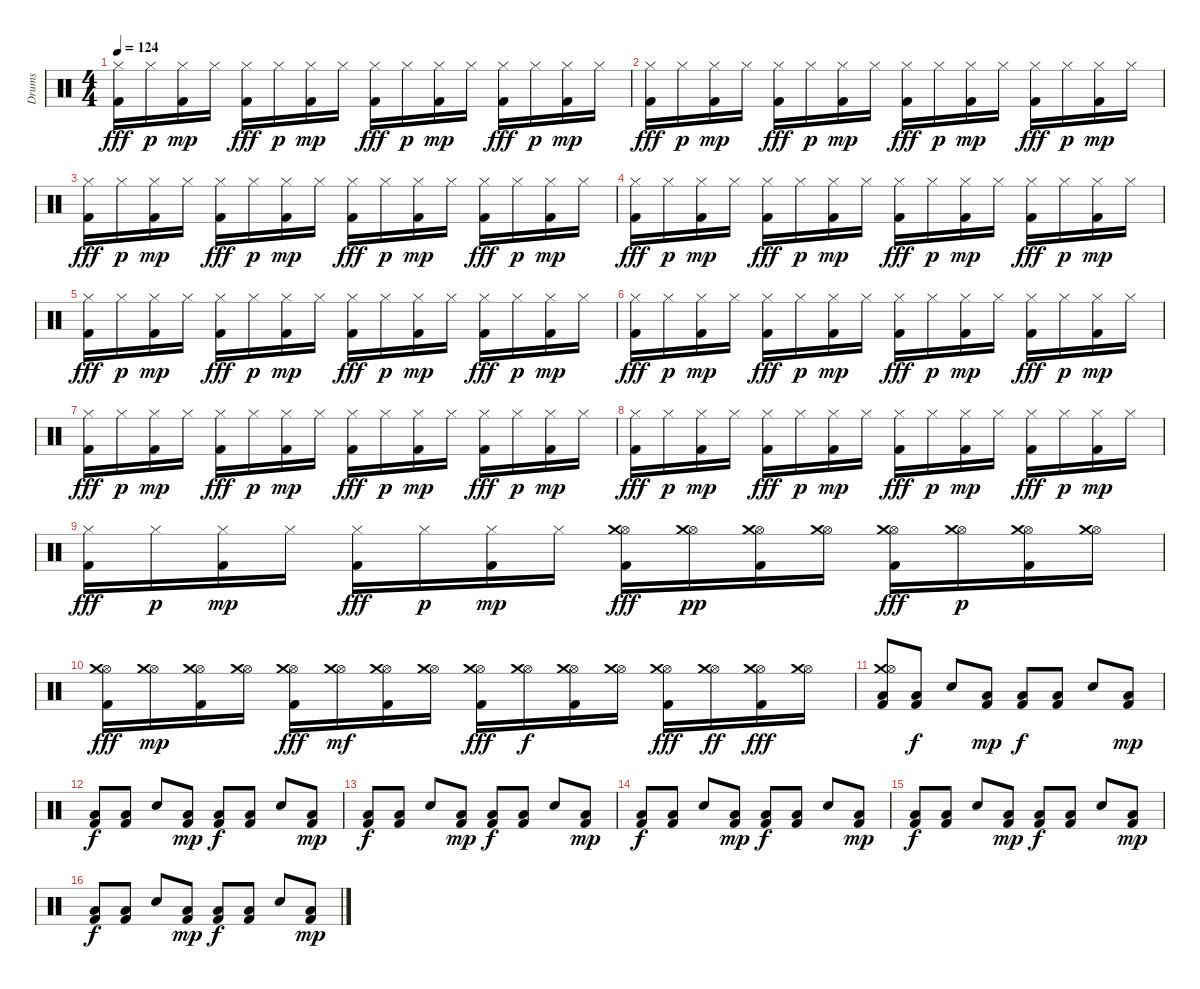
\track ("Drums" "Drums") {instrument percussion}
\staff {score}
\articulation defaults
\ts (4 4)
\tempo 124
\clef neutral
\ks c
("Hi-Hat (closed)" "Kick (hit) 2").16{dy fff volume 11} "Hi-Hat (closed)".16{dy p} ("Hi-Hat (closed)" "Kick (hit) 2").16{dy mp} "Hi-Hat (closed)".16 ("Hi-Hat (closed)" "Kick (hit) 2").16{dy fff} "Hi-Hat (closed)".16{dy p} ("Hi-Hat (closed)" "Kick (hit) 2").16{dy mp} "Hi-Hat (closed)".16 ("Hi-Hat (closed)" "Kick (hit) 2").16{dy fff} "Hi-Hat (closed)".16{dy p} ("Hi-Hat (closed)" "Kick (hit) 2").16{dy mp} "Hi-Hat (closed)".16 ("Hi-Hat (closed)" "Kick (hit) 2").16{dy fff} "Hi-Hat (closed)".16{dy p} ("Hi-Hat (closed)" "Kick (hit) 2").16{dy mp} "Hi-Hat (closed)".16 |
("Hi-Hat (closed)" "Kick (hit) 2").16{dy fff volume 11} "Hi-Hat (closed)".16{dy p} ("Hi-Hat (closed)" "Kick (hit) 2").16{dy mp} "Hi-Hat (closed)".16 ("Hi-Hat (closed)" "Kick (hit) 2").16{dy fff} "Hi-Hat (closed)".16{dy p} ("Hi-Hat (closed)" "Kick (hit) 2").16{dy mp} "Hi-Hat (closed)".16 ("Hi-Hat (closed)" "Kick (hit) 2").16{dy fff} "Hi-Hat (closed)".16{dy p} ("Hi-Hat (closed)" "Kick (hit) 2").16{dy mp} "Hi-Hat (closed)".16 ("Hi-Hat (closed)" "Kick (hit) 2").16{dy fff} "Hi-Hat (closed)".16{dy p} ("Hi-Hat (closed)" "Kick (hit) 2").16{dy mp} "Hi-Hat (closed)".16 |
("Hi-Hat (closed)" "Kick (hit) 2").16{dy fff volume 11} "Hi-Hat (closed)".16{dy p} ("Hi-Hat (closed)" "Kick (hit) 2").16{dy mp} "Hi-Hat (closed)".16 ("Hi-Hat (closed)" "Kick (hit) 2").16{dy fff} "Hi-Hat (closed)".16{dy p} ("Hi-Hat (closed)" "Kick (hit) 2").16{dy mp} "Hi-Hat (closed)".16 ("Hi-Hat (closed)" "Kick (hit) 2").16{dy fff} "Hi-Hat (closed)".16{dy p} ("Hi-Hat (closed)" "Kick (hit) 2").16{dy mp} "Hi-Hat (closed)".16 ("Hi-Hat (closed)" "Kick (hit) 2").16{dy fff} "Hi-Hat (closed)".16{dy p} ("Hi-Hat (closed)" "Kick (hit) 2").16{dy mp} "Hi-Hat (closed)".16 |
("Hi-Hat (closed)" "Kick (hit) 2").16{dy fff volume 11} "Hi-Hat (closed)".16{dy p} ("Hi-Hat (closed)" "Kick (hit) 2").16{dy mp} "Hi-Hat (closed)".16 ("Hi-Hat (closed)" "Kick (hit) 2").16{dy fff} "Hi-Hat (closed)".16{dy p} ("Hi-Hat (closed)" "Kick (hit) 2").16{dy mp} "Hi-Hat (closed)".16 ("Hi-Hat (closed)" "Kick (hit) 2").16{dy fff} "Hi-Hat (closed)".16{dy p} ("Hi-Hat (closed)" "Kick (hit) 2").16{dy mp} "Hi-Hat (closed)".16 ("Hi-Hat (closed)" "Kick (hit) 2").16{dy fff} "Hi-Hat (closed)".16{dy p} ("Hi-Hat (closed)" "Kick (hit) 2").16{dy mp} "Hi-Hat (closed)".16 |
("Hi-Hat (closed)" "Kick (hit) 2").16{dy fff volume 11} "Hi-Hat (closed)".16{dy p} ("Hi-Hat (closed)" "Kick (hit) 2").16{dy mp} "Hi-Hat (closed)".16 ("Hi-Hat (closed)" "Kick (hit) 2").16{dy fff} "Hi-Hat (closed)".16{dy p} ("Hi-Hat (closed)" "Kick (hit) 2").16{dy mp} "Hi-Hat (closed)".16 ("Hi-Hat (closed)" "Kick (hit) 2").16{dy fff} "Hi-Hat (closed)".16{dy p} ("Hi-Hat (closed)" "Kick (hit) 2").16{dy mp} "Hi-Hat (closed)".16 ("Hi-Hat (closed)" "Kick (hit) 2").16{dy fff} "Hi-Hat (closed)".16{dy p} ("Hi-Hat (closed)" "Kick (hit) 2").16{dy mp} "Hi-Hat (closed)".16 |
("Hi-Hat (closed)" "Kick (hit) 2").16{dy fff volume 11} "Hi-Hat (closed)".16{dy p} ("Hi-Hat (closed)" "Kick (hit) 2").16{dy mp} "Hi-Hat (closed)".16 ("Hi-Hat (closed)" "Kick (hit) 2").16{dy fff} "Hi-Hat (closed)".16{dy p} ("Hi-Hat (closed)" "Kick (hit) 2").16{dy mp} "Hi-Hat (closed)".16 ("Hi-Hat (closed)" "Kick (hit) 2").16{dy fff} "Hi-Hat (closed)".16{dy p} ("Hi-Hat (closed)" "Kick (hit) 2").16{dy mp} "Hi-Hat (closed)".16 ("Hi-Hat (closed)" "Kick (hit) 2").16{dy fff} "Hi-Hat (closed)".16{dy p} ("Hi-Hat (closed)" "Kick (hit) 2").16{dy mp} "Hi-Hat (closed)".16 |
("Hi-Hat (closed)" "Kick (hit) 2").16{dy fff volume 11} "Hi-Hat (closed)".16{dy p} ("Hi-Hat (closed)" "Kick (hit) 2").16{dy mp} "Hi-Hat (closed)".16 ("Hi-Hat (closed)" "Kick (hit) 2").16{dy fff} "Hi-Hat (closed)".16{dy p} ("Hi-Hat (closed)" "Kick (hit) 2").16{dy mp} "Hi-Hat (closed)".16 ("Hi-Hat (closed)" "Kick (hit) 2").16{dy fff} "Hi-Hat (closed)".16{dy p} ("Hi-Hat (closed)" "Kick (hit) 2").16{dy mp} "Hi-Hat (closed)".16 ("Hi-Hat (closed)" "Kick (hit) 2").16{dy fff} "Hi-Hat (closed)".16{dy p} ("Hi-Hat (closed)" "Kick (hit) 2").16{dy mp} "Hi-Hat (closed)".16 |
("Hi-Hat (closed)" "Kick (hit) 2").16{dy fff volume 11} "Hi-Hat (closed)".16{dy p} ("Hi-Hat (closed)" "Kick (hit) 2").16{dy mp} "Hi-Hat (closed)".16 ("Hi-Hat (closed)" "Kick (hit) 2").16{dy fff} "Hi-Hat (closed)".16{dy p} ("Hi-Hat (closed)" "Kick (hit) 2").16{dy mp} "Hi-Hat (closed)".16 ("Hi-Hat (closed)" "Kick (hit) 2").16{dy fff} "Hi-Hat (closed)".16{dy p} ("Hi-Hat (closed)" "Kick (hit) 2").16{dy mp} "Hi-Hat (closed)".16 ("Hi-Hat (closed)" "Kick (hit) 2").16{dy fff} "Hi-Hat (closed)".16{dy p} ("Hi-Hat (closed)" "Kick (hit) 2").16{dy mp} "Hi-Hat (closed)".16 |
("Hi-Hat (closed)" "Kick (hit) 2").16{dy fff} "Hi-Hat (closed)".16{dy p} ("Hi-Hat (closed)" "Kick (hit) 2").16{dy mp} "Hi-Hat (closed)".16 ("Hi-Hat (closed)" "Kick (hit) 2").16{dy fff} "Hi-Hat (closed)".16{dy p} ("Hi-Hat (closed)" "Kick (hit) 2").16{dy mp} "Hi-Hat (closed)".16 ("Hi-Hat (open)" "Crash medium (hit)" "Kick (hit) 2").16{dy fff} ("Hi-Hat (open)" "Crash medium (hit)").16{dy pp} ("Hi-Hat (open)" "Crash medium (hit)" "Kick (hit) 2").16 ("Hi-Hat (open)" "Crash medium (hit)").16 ("Hi-Hat (open)" "Crash medium (hit)" "Kick (hit) 2").16{dy fff} ("Hi-Hat (open)" "Crash medium (hit)").16{dy p} ("Hi-Hat (open)" "Crash medium (hit)" "Kick (hit) 2").16 ("Hi-Hat (open)" "Crash medium (hit)").16 |
("Hi-Hat (open)" "Crash medium (hit)" "Kick (hit) 2").16{dy fff} ("Hi-Hat (open)" "Crash medium (hit)").16{dy mp} ("Hi-Hat (open)" "Crash medium (hit)" "Kick (hit) 2").16 ("Hi-Hat (open)" "Crash medium (hit)").16 ("Hi-Hat (open)" "Crash medium (hit)" "Kick (hit) 2").16{dy fff} ("Hi-Hat (open)" "Crash medium (hit)").16{dy mf} ("Hi-Hat (open)" "Crash medium (hit)" "Kick (hit) 2").16 ("Hi-Hat (open)" "Crash medium (hit)").16 ("Hi-Hat (open)" "Crash medium (hit)" "Kick (hit) 2").16{dy fff} ("Hi-Hat (open)" "Crash medium (hit)").16{dy f} ("Hi-Hat (open)" "Crash medium (hit)" "Kick (hit) 2").16 ("Hi-Hat (open)" "Crash medium (hit)").16 ("Hi-Hat (open)" "Crash medium (hit)" "Kick (hit) 2").16{dy fff} ("Hi-Hat (open)" "Crash medium (hit)").16{dy ff} ("Hi-Hat (open)" "Crash medium (hit)" "Kick (hit) 2").16{dy fff} ("Hi-Hat (open)" "Crash medium (hit)").16 |
("Crash medium (hit)" "Hi-Hat (open)" "Low Tom (hit)" "Kick (hit) 2").8 ("Low Tom (hit)" "Kick (hit) 2").8{dy f} "Snare (hit) 2".8 ("Low Tom (hit)" "Kick (hit) 2").8{dy mp} ("Low Tom (hit)" "Kick (hit) 2").8{dy f} ("Low Tom (hit)" "Kick (hit) 2").8 "Snare (hit) 2".8 ("Low Tom (hit)" "Kick (hit) 2").8{dy mp} |
("Low Tom (hit)" "Kick (hit) 2").8{dy f} ("Low Tom (hit)" "Kick (hit) 2").8 "Snare (hit) 2".8 ("Low Tom (hit)" "Kick (hit) 2").8{dy mp} ("Low Tom (hit)" "Kick (hit) 2").8{dy f} ("Low Tom (hit)" "Kick (hit) 2").8 "Snare (hit) 2".8 ("Low Tom (hit)" "Kick (hit) 2").8{dy mp} |
("Low Tom (hit)" "Kick (hit) 2").8{dy f} ("Low Tom (hit)" "Kick (hit) 2").8 "Snare (hit) 2".8 ("Low Tom (hit)" "Kick (hit) 2").8{dy mp} ("Low Tom (hit)" "Kick (hit) 2").8{dy f} ("Low Tom (hit)" "Kick (hit) 2").8 "Snare (hit) 2".8 ("Low Tom (hit)" "Kick (hit) 2").8{dy mp} |
("Low Tom (hit)" "Kick (hit) 2").8{dy f} ("Low Tom (hit)" "Kick (hit) 2").8 "Snare (hit) 2".8 ("Low Tom (hit)" "Kick (hit) 2").8{dy mp} ("Low Tom (hit)" "Kick (hit) 2").8{dy f} ("Low Tom (hit)" "Kick (hit) 2").8 "Snare (hit) 2".8 ("Low Tom (hit)" "Kick (hit) 2").8{dy mp} |
("Low Tom (hit)" "Kick (hit) 2").8{dy f} ("Low Tom (hit)" "Kick (hit) 2").8 "Snare (hit) 2".8 ("Low Tom (hit)" "Kick (hit) 2").8{dy mp} ("Low Tom (hit)" "Kick (hit) 2").8{dy f} ("Low Tom (hit)" "Kick (hit) 2").8 "Snare (hit) 2".8 ("Low Tom (hit)" "Kick (hit) 2").8{dy mp} |
("Low Tom (hit)" "Kick (hit) 2").8{dy f} ("Low Tom (hit)" "Kick (hit) 2").8 "Snare (hit) 2".8 ("Low Tom (hit)" "Kick (hit) 2").8{dy mp} ("Low Tom (hit)" "Kick (hit) 2").8{dy f} ("Low Tom (hit)" "Kick (hit) 2").8 "Snare (hit) 2".8 ("Low Tom (hit)" "Kick (hit) 2").8{dy mp}
